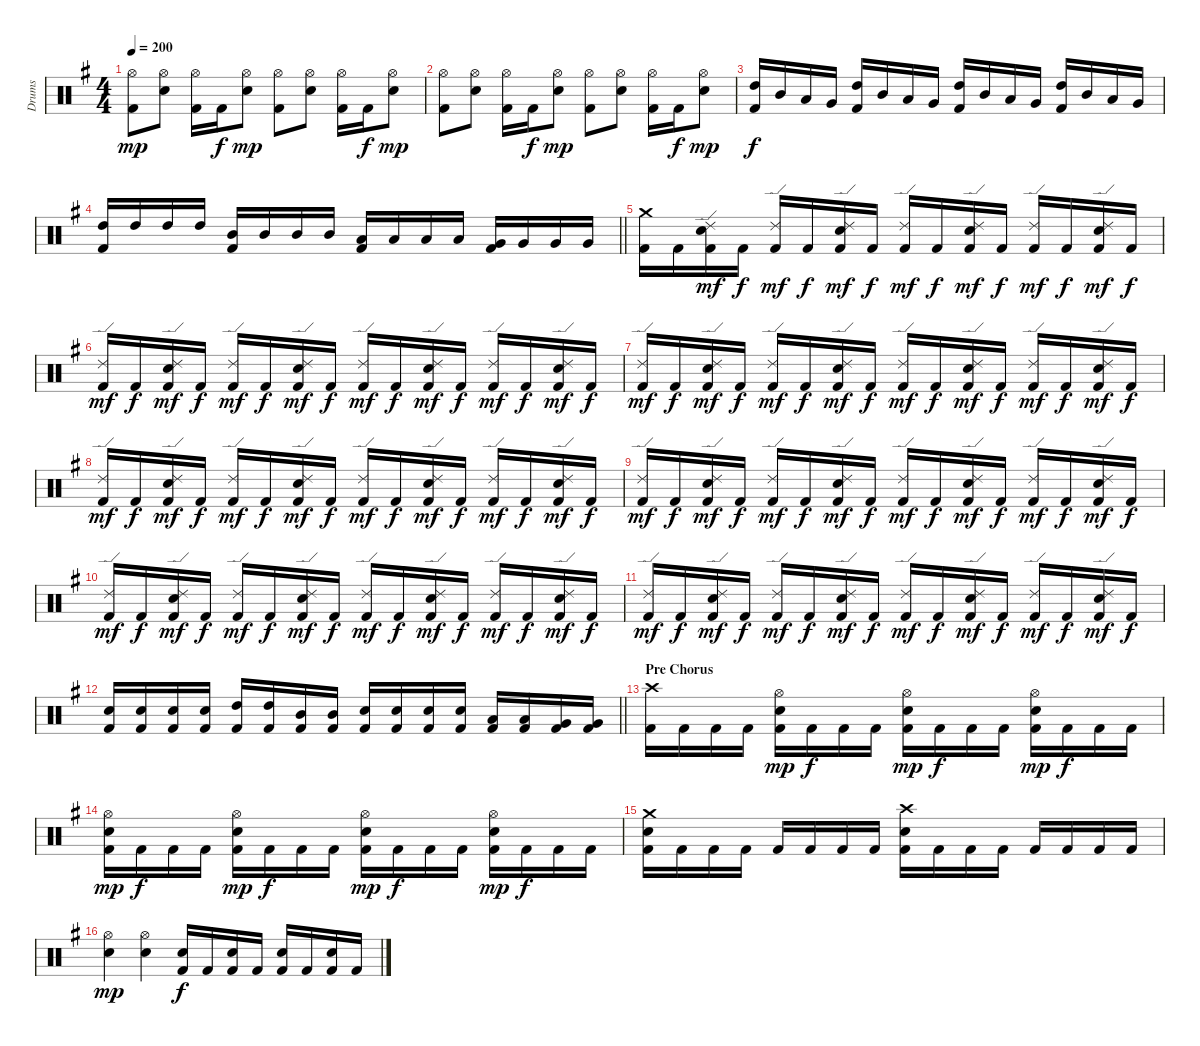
\track ("Drums" "Drums") {instrument percussion}
\staff {score}
\articulation defaults
\ts (4 4)
\tempo 200
\clef neutral
\ks g
("Hi-Hat (open)" "Kick (hit) 2").8{dy mp} ("Hi-Hat (open)" "Snare (hit) 2").8 ("Hi-Hat (open)" "Kick (hit) 2").16 "Kick (hit) 2".16{dy f} ("Hi-Hat (open)" "Snare (hit) 2").8{dy mp} ("Hi-Hat (open)" "Kick (hit) 2").8 ("Hi-Hat (open)" "Snare (hit) 2").8 ("Hi-Hat (open)" "Kick (hit) 2").16 "Kick (hit) 2".16{dy f} ("Hi-Hat (open)" "Snare (hit) 2").8{dy mp} |
("Hi-Hat (open)" "Kick (hit) 2").8 ("Hi-Hat (open)" "Snare (hit) 2").8 ("Hi-Hat (open)" "Kick (hit) 2").16 "Kick (hit) 2".16{dy f} ("Hi-Hat (open)" "Snare (hit) 2").8{dy mp} ("Hi-Hat (open)" "Kick (hit) 2").8 ("Hi-Hat (open)" "Snare (hit) 2").8 ("Hi-Hat (open)" "Kick (hit) 2").16 "Kick (hit) 2".16{dy f} ("Hi-Hat (open)" "Snare (hit) 2").8{dy mp} |
("High Tom (hit)" "Kick (hit) 2").16{dy f} "Mid Tom (hit)".16 "Low Tom (hit)".16 "Very Low Tom (hit)".16 ("High Tom (hit)" "Kick (hit) 2").16 "Mid Tom (hit)".16 "Low Tom (hit)".16 "Very Low Tom (hit)".16 ("High Tom (hit)" "Kick (hit) 2").16 "Mid Tom (hit)".16 "Low Tom (hit)".16 "Very Low Tom (hit)".16 ("High Tom (hit)" "Kick (hit) 2").16 "Mid Tom (hit)".16 "Low Tom (hit)".16 "Very Low Tom (hit)".16 |
\barLineRight lightlight
("High Tom (hit)" "Kick (hit) 2").16 "High Tom (hit)".16 "High Tom (hit)".16 "High Tom (hit)".16 ("Mid Tom (hit)" "Kick (hit) 2").16 "Mid Tom (hit)".16 "Mid Tom (hit)".16 "Mid Tom (hit)".16 ("Low Tom (hit)" "Kick (hit) 2").16 "Low Tom (hit)".16 "Low Tom (hit)".16 "Low Tom (hit)".16 ("Very Low Tom (hit)" "Kick (hit) 2").16 "Very Low Tom (hit)".16 "Very Low Tom (hit)".16 "Very Low Tom (hit)".16 |
\section ("" "")
("Crash medium (hit)" "Kick (hit) 2").16 "Kick (hit) 2".16 ("Ride (edge) 2" "Snare (hit) 2" "Kick (hit) 2").16{dy mf} "Kick (hit) 2".16{dy f} ("Ride (edge) 2" "Kick (hit) 2").16{dy mf} "Kick (hit) 2".16{dy f} ("Ride (edge) 2" "Snare (hit) 2" "Kick (hit) 2").16{dy mf} "Kick (hit) 2".16{dy f} ("Ride (edge) 2" "Kick (hit) 2").16{dy mf} "Kick (hit) 2".16{dy f} ("Ride (edge) 2" "Snare (hit) 2" "Kick (hit) 2").16{dy mf} "Kick (hit) 2".16{dy f} ("Ride (edge) 2" "Kick (hit) 2").16{dy mf} "Kick (hit) 2".16{dy f} ("Ride (edge) 2" "Snare (hit) 2" "Kick (hit) 2").16{dy mf} "Kick (hit) 2".16{dy f} |
("Ride (edge) 2" "Kick (hit) 2").16{dy mf} "Kick (hit) 2".16{dy f} ("Ride (edge) 2" "Snare (hit) 2" "Kick (hit) 2").16{dy mf} "Kick (hit) 2".16{dy f} ("Ride (edge) 2" "Kick (hit) 2").16{dy mf} "Kick (hit) 2".16{dy f} ("Ride (edge) 2" "Snare (hit) 2" "Kick (hit) 2").16{dy mf} "Kick (hit) 2".16{dy f} ("Ride (edge) 2" "Kick (hit) 2").16{dy mf} "Kick (hit) 2".16{dy f} ("Ride (edge) 2" "Snare (hit) 2" "Kick (hit) 2").16{dy mf} "Kick (hit) 2".16{dy f} ("Ride (edge) 2" "Kick (hit) 2").16{dy mf} "Kick (hit) 2".16{dy f} ("Ride (edge) 2" "Snare (hit) 2" "Kick (hit) 2").16{dy mf} "Kick (hit) 2".16{dy f} |
("Ride (edge) 2" "Kick (hit) 2").16{dy mf} "Kick (hit) 2".16{dy f} ("Ride (edge) 2" "Snare (hit) 2" "Kick (hit) 2").16{dy mf} "Kick (hit) 2".16{dy f} ("Ride (edge) 2" "Kick (hit) 2").16{dy mf} "Kick (hit) 2".16{dy f} ("Ride (edge) 2" "Snare (hit) 2" "Kick (hit) 2").16{dy mf} "Kick (hit) 2".16{dy f} ("Ride (edge) 2" "Kick (hit) 2").16{dy mf} "Kick (hit) 2".16{dy f} ("Ride (edge) 2" "Snare (hit) 2" "Kick (hit) 2").16{dy mf} "Kick (hit) 2".16{dy f} ("Ride (edge) 2" "Kick (hit) 2").16{dy mf} "Kick (hit) 2".16{dy f} ("Ride (edge) 2" "Snare (hit) 2" "Kick (hit) 2").16{dy mf} "Kick (hit) 2".16{dy f} |
("Ride (edge) 2" "Kick (hit) 2").16{dy mf} "Kick (hit) 2".16{dy f} ("Ride (edge) 2" "Snare (hit) 2" "Kick (hit) 2").16{dy mf} "Kick (hit) 2".16{dy f} ("Ride (edge) 2" "Kick (hit) 2").16{dy mf} "Kick (hit) 2".16{dy f} ("Ride (edge) 2" "Snare (hit) 2" "Kick (hit) 2").16{dy mf} "Kick (hit) 2".16{dy f} ("Ride (edge) 2" "Kick (hit) 2").16{dy mf} "Kick (hit) 2".16{dy f} ("Ride (edge) 2" "Snare (hit) 2" "Kick (hit) 2").16{dy mf} "Kick (hit) 2".16{dy f} ("Ride (edge) 2" "Kick (hit) 2").16{dy mf} "Kick (hit) 2".16{dy f} ("Ride (edge) 2" "Snare (hit) 2" "Kick (hit) 2").16{dy mf} "Kick (hit) 2".16{dy f} |
("Ride (edge) 2" "Kick (hit) 2").16{dy mf} "Kick (hit) 2".16{dy f} ("Ride (edge) 2" "Snare (hit) 2" "Kick (hit) 2").16{dy mf} "Kick (hit) 2".16{dy f} ("Ride (edge) 2" "Kick (hit) 2").16{dy mf} "Kick (hit) 2".16{dy f} ("Ride (edge) 2" "Snare (hit) 2" "Kick (hit) 2").16{dy mf} "Kick (hit) 2".16{dy f} ("Ride (edge) 2" "Kick (hit) 2").16{dy mf} "Kick (hit) 2".16{dy f} ("Ride (edge) 2" "Snare (hit) 2" "Kick (hit) 2").16{dy mf} "Kick (hit) 2".16{dy f} ("Ride (edge) 2" "Kick (hit) 2").16{dy mf} "Kick (hit) 2".16{dy f} ("Ride (edge) 2" "Snare (hit) 2" "Kick (hit) 2").16{dy mf} "Kick (hit) 2".16{dy f} |
("Ride (edge) 2" "Kick (hit) 2").16{dy mf} "Kick (hit) 2".16{dy f} ("Ride (edge) 2" "Snare (hit) 2" "Kick (hit) 2").16{dy mf} "Kick (hit) 2".16{dy f} ("Ride (edge) 2" "Kick (hit) 2").16{dy mf} "Kick (hit) 2".16{dy f} ("Ride (edge) 2" "Snare (hit) 2" "Kick (hit) 2").16{dy mf} "Kick (hit) 2".16{dy f} ("Ride (edge) 2" "Kick (hit) 2").16{dy mf} "Kick (hit) 2".16{dy f} ("Ride (edge) 2" "Snare (hit) 2" "Kick (hit) 2").16{dy mf} "Kick (hit) 2".16{dy f} ("Ride (edge) 2" "Kick (hit) 2").16{dy mf} "Kick (hit) 2".16{dy f} ("Ride (edge) 2" "Snare (hit) 2" "Kick (hit) 2").16{dy mf} "Kick (hit) 2".16{dy f} |
("Ride (edge) 2" "Kick (hit) 2").16{dy mf} "Kick (hit) 2".16{dy f} ("Ride (edge) 2" "Snare (hit) 2" "Kick (hit) 2").16{dy mf} "Kick (hit) 2".16{dy f} ("Ride (edge) 2" "Kick (hit) 2").16{dy mf} "Kick (hit) 2".16{dy f} ("Ride (edge) 2" "Snare (hit) 2" "Kick (hit) 2").16{dy mf} "Kick (hit) 2".16{dy f} ("Ride (edge) 2" "Kick (hit) 2").16{dy mf} "Kick (hit) 2".16{dy f} ("Ride (edge) 2" "Snare (hit) 2" "Kick (hit) 2").16{dy mf} "Kick (hit) 2".16{dy f} ("Ride (edge) 2" "Kick (hit) 2").16{dy mf} "Kick (hit) 2".16{dy f} ("Ride (edge) 2" "Snare (hit) 2" "Kick (hit) 2").16{dy mf} "Kick (hit) 2".16{dy f} |
\barLineRight lightlight
("Snare (hit) 2" "Kick (hit) 2").16 ("Snare (hit) 2" "Kick (hit) 2").16 ("Snare (hit) 2" "Kick (hit) 2").16 ("Snare (hit) 2" "Kick (hit) 2").16 ("High Tom (hit)" "Kick (hit) 2").16 ("High Tom (hit)" "Kick (hit) 2").16 ("Mid Tom (hit)" "Kick (hit) 2").16 ("Mid Tom (hit)" "Kick (hit) 2").16 ("Snare (hit) 2" "Kick (hit) 2").16 ("Snare (hit) 2" "Kick (hit) 2").16 ("Snare (hit) 2" "Kick (hit) 2").16 ("Snare (hit) 2" "Kick (hit) 2").16 ("Low Tom (hit)" "Kick (hit) 2").16 ("Low Tom (hit)" "Kick (hit) 2").16 ("Very Low Tom (hit)" "Kick (hit) 2").16 ("Very Low Tom (hit)" "Kick (hit) 2").16 |
\section ("" "Pre Chorus")
("Crash high (hit)" "Kick (hit) 2").16 "Kick (hit) 2".16 "Kick (hit) 2".16 "Kick (hit) 2".16 ("Hi-Hat (open)" "Snare (hit) 2" "Kick (hit) 2").16{dy mp} "Kick (hit) 2".16{dy f} "Kick (hit) 2".16 "Kick (hit) 2".16 ("Hi-Hat (open)" "Snare (hit) 2" "Kick (hit) 2").16{dy mp} "Kick (hit) 2".16{dy f} "Kick (hit) 2".16 "Kick (hit) 2".16 ("Hi-Hat (open)" "Snare (hit) 2" "Kick (hit) 2").16{dy mp} "Kick (hit) 2".16{dy f} "Kick (hit) 2".16 "Kick (hit) 2".16 |
("Hi-Hat (open)" "Snare (hit) 2" "Kick (hit) 2").16{dy mp} "Kick (hit) 2".16{dy f} "Kick (hit) 2".16 "Kick (hit) 2".16 ("Hi-Hat (open)" "Snare (hit) 2" "Kick (hit) 2").16{dy mp} "Kick (hit) 2".16{dy f} "Kick (hit) 2".16 "Kick (hit) 2".16 ("Hi-Hat (open)" "Snare (hit) 2" "Kick (hit) 2").16{dy mp} "Kick (hit) 2".16{dy f} "Kick (hit) 2".16 "Kick (hit) 2".16 ("Hi-Hat (open)" "Snare (hit) 2" "Kick (hit) 2").16{dy mp} "Kick (hit) 2".16{dy f} "Kick (hit) 2".16 "Kick (hit) 2".16 |
("Crash medium (hit)" "Snare (hit) 2" "Kick (hit) 2").16 "Kick (hit) 2".16 "Kick (hit) 2".16 "Kick (hit) 2".16 "Kick (hit) 2".16 "Kick (hit) 2".16 "Kick (hit) 2".16 "Kick (hit) 2".16 ("Crash high (hit)" "Snare (hit) 2" "Kick (hit) 2").16 "Kick (hit) 2".16 "Kick (hit) 2".16 "Kick (hit) 2".16 "Kick (hit) 2".16 "Kick (hit) 2".16 "Kick (hit) 2".16 "Kick (hit) 2".16 |
("Hi-Hat (open)" "Snare (hit) 2").4{dy mp} ("Hi-Hat (open)" "Snare (hit) 2").4 ("Snare (hit) 2" "Kick (hit) 2").16{dy f} "Kick (hit) 2".16 ("Snare (hit) 2" "Kick (hit) 2").16 "Kick (hit) 2".16 ("Snare (hit) 2" "Kick (hit) 2").16 "Kick (hit) 2".16 ("Snare (hit) 2" "Kick (hit) 2").16 "Kick (hit) 2".16
